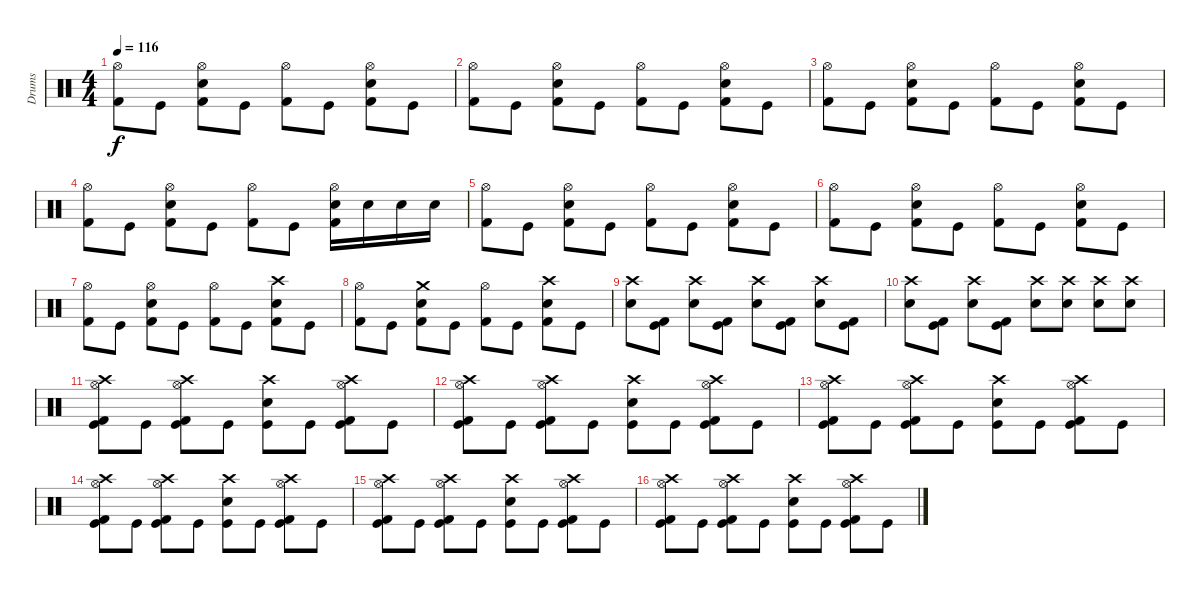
\track ("Drums" "Drums") {instrument percussion}
\staff {score}
\articulation defaults
\ts (4 4)
\tempo 116
\clef neutral
\ks c
("Hi-Hat (open)" "Kick (hit) 2").8{dy f} "Kick (hit)".8 ("Hi-Hat (open)" "Snare (hit) 2" "Kick (hit) 2").8 "Kick (hit)".8 ("Hi-Hat (open)" "Kick (hit) 2").8 "Kick (hit)".8 ("Hi-Hat (open)" "Snare (hit) 2" "Kick (hit) 2").8 "Kick (hit)".8 |
("Hi-Hat (open)" "Kick (hit) 2").8 "Kick (hit)".8 ("Hi-Hat (open)" "Snare (hit) 2" "Kick (hit) 2").8 "Kick (hit)".8 ("Hi-Hat (open)" "Kick (hit) 2").8 "Kick (hit)".8 ("Hi-Hat (open)" "Snare (hit) 2" "Kick (hit) 2").8 "Kick (hit)".8 |
("Hi-Hat (open)" "Kick (hit) 2").8 "Kick (hit)".8 ("Hi-Hat (open)" "Snare (hit) 2" "Kick (hit) 2").8 "Kick (hit)".8 ("Hi-Hat (open)" "Kick (hit) 2").8 "Kick (hit)".8 ("Hi-Hat (open)" "Snare (hit) 2" "Kick (hit) 2").8 "Kick (hit)".8 |
("Hi-Hat (open)" "Kick (hit) 2").8 "Kick (hit)".8 ("Hi-Hat (open)" "Snare (hit) 2" "Kick (hit) 2").8 "Kick (hit)".8 ("Hi-Hat (open)" "Kick (hit) 2").8 "Kick (hit)".8 ("Hi-Hat (open)" "Snare (hit) 2" "Kick (hit) 2").16 "Snare (hit) 2".16 "Snare (hit) 2".16 "Snare (hit) 2".16 |
("Hi-Hat (open)" "Kick (hit) 2").8 "Kick (hit)".8 ("Hi-Hat (open)" "Snare (hit) 2" "Kick (hit) 2").8 "Kick (hit)".8 ("Hi-Hat (open)" "Kick (hit) 2").8 "Kick (hit)".8 ("Hi-Hat (open)" "Snare (hit) 2" "Kick (hit) 2").8 "Kick (hit)".8 |
("Hi-Hat (open)" "Kick (hit) 2").8 "Kick (hit)".8 ("Hi-Hat (open)" "Snare (hit) 2" "Kick (hit) 2").8 "Kick (hit)".8 ("Hi-Hat (open)" "Kick (hit) 2").8 "Kick (hit)".8 ("Hi-Hat (open)" "Snare (hit) 2" "Kick (hit) 2").8 "Kick (hit)".8 |
("Hi-Hat (open)" "Kick (hit) 2").8 "Kick (hit)".8 ("Hi-Hat (open)" "Snare (hit) 2" "Kick (hit) 2").8 "Kick (hit)".8 ("Hi-Hat (open)" "Kick (hit) 2").8 "Kick (hit)".8 ("Crash high (hit)" "Snare (hit) 2" "Kick (hit) 2").8 "Kick (hit)".8 |
("Hi-Hat (open)" "Kick (hit) 2").8 "Kick (hit)".8 ("Crash medium (hit)" "Snare (hit) 2" "Kick (hit) 2").8 "Kick (hit)".8 ("Hi-Hat (open)" "Kick (hit) 2").8 "Kick (hit)".8 ("Crash high (hit)" "Snare (hit) 2" "Kick (hit) 2").8 "Kick (hit)".8 |
("Crash high (hit)" "Snare (hit) 2").8 ("Kick (hit) 2" "Kick (hit)").8 ("Crash high (hit)" "Snare (hit) 2").8 ("Kick (hit) 2" "Kick (hit)").8 ("Crash high (hit)" "Snare (hit) 2").8 ("Kick (hit) 2" "Kick (hit)").8 ("Crash high (hit)" "Snare (hit) 2").8 ("Kick (hit) 2" "Kick (hit)").8 |
("Crash high (hit)" "Snare (hit) 2").8 ("Kick (hit) 2" "Kick (hit)").8 ("Crash high (hit)" "Snare (hit) 2").8 ("Kick (hit) 2" "Kick (hit)").8 ("Crash high (hit)" "Snare (hit) 2").8 ("Crash high (hit)" "Snare (hit) 2").8 ("Crash high (hit)" "Snare (hit) 2").8 ("Crash high (hit)" "Snare (hit) 2").8 |
("Crash high (hit)" "Hi-Hat (open)" "Kick (hit) 2" "Kick (hit)").8 "Kick (hit)".8 ("Crash high (hit)" "Hi-Hat (open)" "Kick (hit) 2" "Kick (hit)").8 "Kick (hit)".8 ("Crash high (hit)" "Snare (hit) 2" "Kick (hit)").8 "Kick (hit)".8 ("Crash high (hit)" "Hi-Hat (open)" "Kick (hit) 2" "Kick (hit)").8 "Kick (hit)".8 |
("Crash high (hit)" "Hi-Hat (open)" "Kick (hit) 2" "Kick (hit)").8 "Kick (hit)".8 ("Crash high (hit)" "Hi-Hat (open)" "Kick (hit) 2" "Kick (hit)").8 "Kick (hit)".8 ("Crash high (hit)" "Snare (hit) 2" "Kick (hit)").8 "Kick (hit)".8 ("Crash high (hit)" "Hi-Hat (open)" "Kick (hit) 2" "Kick (hit)").8 "Kick (hit)".8 |
("Crash high (hit)" "Hi-Hat (open)" "Kick (hit) 2" "Kick (hit)").8 "Kick (hit)".8 ("Crash high (hit)" "Hi-Hat (open)" "Kick (hit) 2" "Kick (hit)").8 "Kick (hit)".8 ("Crash high (hit)" "Snare (hit) 2" "Kick (hit)").8 "Kick (hit)".8 ("Crash high (hit)" "Hi-Hat (open)" "Kick (hit) 2" "Kick (hit)").8 "Kick (hit)".8 |
("Crash high (hit)" "Hi-Hat (open)" "Kick (hit) 2" "Kick (hit)").8 "Kick (hit)".8 ("Crash high (hit)" "Hi-Hat (open)" "Kick (hit) 2" "Kick (hit)").8 "Kick (hit)".8 ("Crash high (hit)" "Snare (hit) 2" "Kick (hit)").8 "Kick (hit)".8 ("Crash high (hit)" "Hi-Hat (open)" "Kick (hit) 2" "Kick (hit)").8 "Kick (hit)".8 |
("Crash high (hit)" "Hi-Hat (open)" "Kick (hit) 2" "Kick (hit)").8 "Kick (hit)".8 ("Crash high (hit)" "Hi-Hat (open)" "Kick (hit) 2" "Kick (hit)").8 "Kick (hit)".8 ("Crash high (hit)" "Snare (hit) 2" "Kick (hit)").8 "Kick (hit)".8 ("Crash high (hit)" "Hi-Hat (open)" "Kick (hit) 2" "Kick (hit)").8 "Kick (hit)".8 |
("Crash high (hit)" "Hi-Hat (open)" "Kick (hit) 2" "Kick (hit)").8 "Kick (hit)".8 ("Crash high (hit)" "Hi-Hat (open)" "Kick (hit) 2" "Kick (hit)").8 "Kick (hit)".8 ("Crash high (hit)" "Snare (hit) 2" "Kick (hit)").8 "Kick (hit)".8 ("Crash high (hit)" "Hi-Hat (open)" "Kick (hit) 2" "Kick (hit)").8 "Kick (hit)".8
